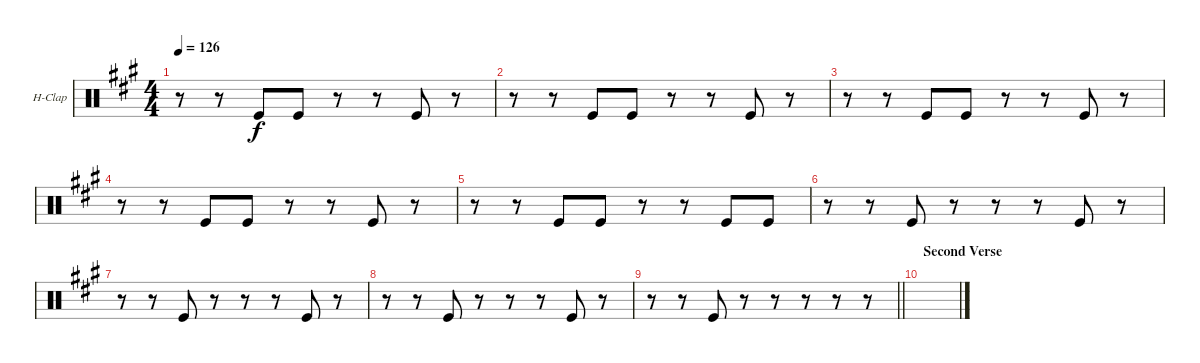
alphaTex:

\bracketExtendMode groupsimilarinstruments
\firstSystemTrackNameOrientation horizontal
\otherSystemsTrackNameOrientation horizontal
\track ("Hand Clap" "H-Clap") {instrument percussion}
\staff {score}
\articulation defaults
\ts (4 4)
\tempo 126
\clef neutral
\ks a
r.8{dy f} r.8 "Kick (hit)".8 "Kick (hit)".8 r.8 r.8 "Kick (hit)".8 r.8 |
r.8 r.8 "Kick (hit)".8 "Kick (hit)".8 r.8 r.8 "Kick (hit)".8 r.8 |
r.8 r.8 "Kick (hit)".8 "Kick (hit)".8 r.8 r.8 "Kick (hit)".8 r.8 |
r.8 r.8 "Kick (hit)".8 "Kick (hit)".8 r.8 r.8 "Kick (hit)".8 r.8 |
r.8 r.8 "Kick (hit)".8 "Kick (hit)".8 r.8 r.8 "Kick (hit)".8 "Kick (hit)".8 |
r.8 r.8 "Kick (hit)".8 r.8 r.8 r.8 "Kick (hit)".8 r.8 |
r.8 r.8 "Kick (hit)".8 r.8 r.8 r.8 "Kick (hit)".8 r.8 |
r.8 r.8 "Kick (hit)".8 r.8 r.8 r.8 "Kick (hit)".8 r.8 |
\barLineRight lightlight
r.8 r.8 "Kick (hit)".8 r.8 r.8 r.8 r.8 r.8 |
\section ("" "Second Verse")
